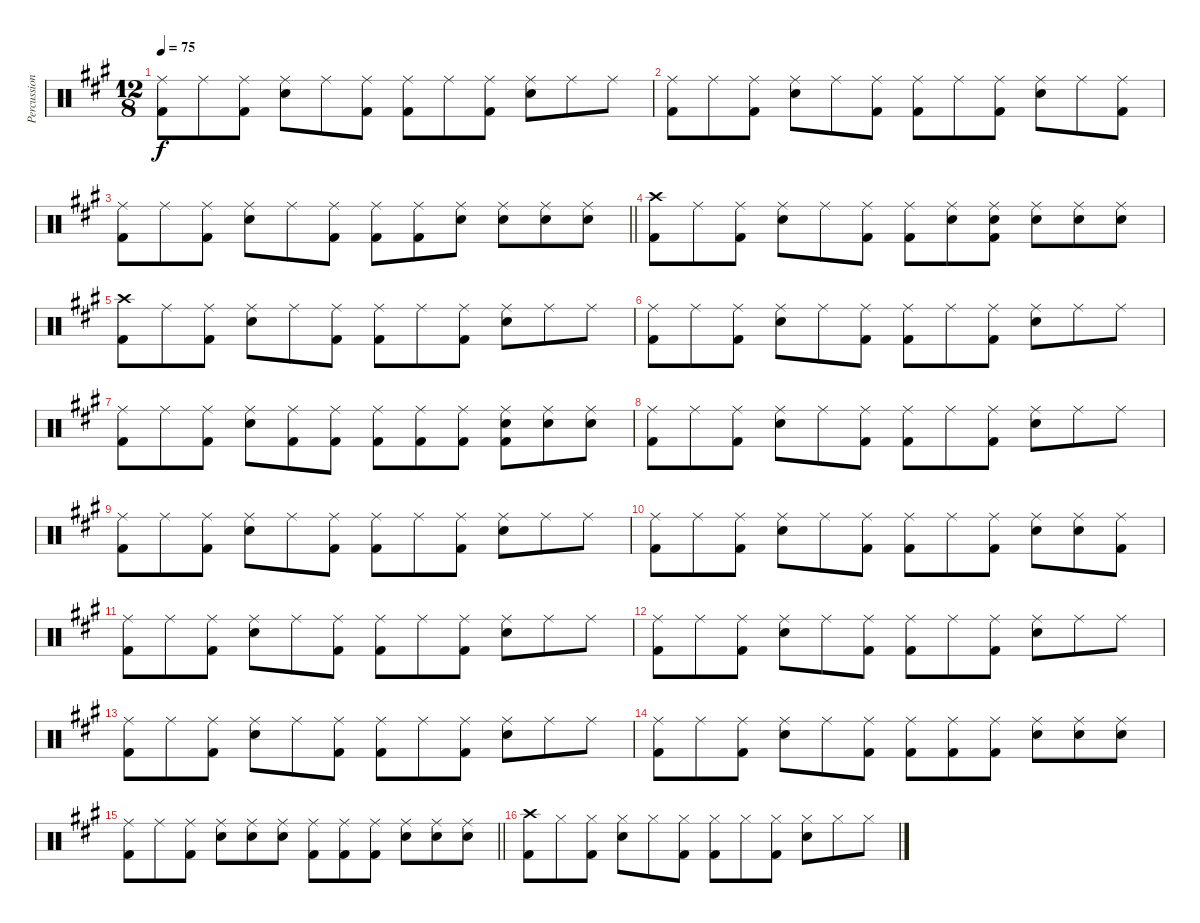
\track ("Percussion" "Percussion") {instrument percussion}
\staff {score}
\articulation defaults
\ts (12 8)
\tempo 75
\clef neutral
\ks a
("Ride (middle)" "Kick (hit) 2").8{dy f} "Ride (middle)".8 ("Ride (middle)" "Kick (hit) 2").8 ("Ride (middle)" "Snare (hit) 2").8 "Ride (middle)".8 ("Ride (middle)" "Kick (hit) 2").8 ("Ride (middle)" "Kick (hit) 2").8 "Ride (middle)".8 ("Ride (middle)" "Kick (hit) 2").8 ("Ride (middle)" "Snare (hit) 2").8 "Ride (middle)".8 "Ride (middle)".8 |
("Ride (middle)" "Kick (hit) 2").8 "Ride (middle)".8 ("Ride (middle)" "Kick (hit) 2").8 ("Ride (middle)" "Snare (hit) 2").8 "Ride (middle)".8 ("Ride (middle)" "Kick (hit) 2").8 ("Ride (middle)" "Kick (hit) 2").8 "Ride (middle)".8 ("Ride (middle)" "Kick (hit) 2").8 ("Ride (middle)" "Snare (hit) 2").8 "Ride (middle)".8 ("Ride (middle)" "Kick (hit) 2").8 |
\barLineRight lightlight
("Ride (middle)" "Kick (hit) 2").8 "Ride (middle)".8 ("Ride (middle)" "Kick (hit) 2").8 ("Ride (middle)" "Snare (hit) 2").8 "Ride (middle)".8 ("Ride (middle)" "Kick (hit) 2").8 ("Ride (middle)" "Kick (hit) 2").8 ("Ride (middle)" "Kick (hit) 2").8 ("Ride (middle)" "Snare (hit) 2").8 ("Ride (middle)" "Snare (hit) 2").8 ("Ride (middle)" "Snare (hit) 2").8 ("Ride (middle)" "Snare (hit) 2").8 |
("Crash high (hit)" "Kick (hit) 2").8 "Ride (middle)".8 ("Ride (middle)" "Kick (hit) 2").8 ("Ride (middle)" "Snare (hit) 2").8 "Ride (middle)".8 ("Ride (middle)" "Kick (hit) 2").8 ("Ride (middle)" "Kick (hit) 2").8 ("Ride (middle)" "Snare (hit) 2").8 ("Ride (middle)" "Snare (hit) 2" "Kick (hit) 2").8 ("Ride (middle)" "Snare (hit) 2").8 ("Ride (middle)" "Snare (hit) 2").8 ("Ride (middle)" "Snare (hit) 2").8 |
("Crash high (hit)" "Kick (hit) 2").8 "Ride (middle)".8 ("Ride (middle)" "Kick (hit) 2").8 ("Ride (middle)" "Snare (hit) 2").8 "Ride (middle)".8 ("Ride (middle)" "Kick (hit) 2").8 ("Ride (middle)" "Kick (hit) 2").8 "Ride (middle)".8 ("Ride (middle)" "Kick (hit) 2").8 ("Ride (middle)" "Snare (hit) 2").8 "Ride (middle)".8 "Ride (middle)".8 |
("Ride (middle)" "Kick (hit) 2").8 "Ride (middle)".8 ("Ride (middle)" "Kick (hit) 2").8 ("Ride (middle)" "Snare (hit) 2").8 "Ride (middle)".8 ("Ride (middle)" "Kick (hit) 2").8 ("Ride (middle)" "Kick (hit) 2").8 "Ride (middle)".8 ("Ride (middle)" "Kick (hit) 2").8 ("Ride (middle)" "Snare (hit) 2").8 "Ride (middle)".8 "Ride (middle)".8 |
("Ride (middle)" "Kick (hit) 2").8 "Ride (middle)".8 ("Ride (middle)" "Kick (hit) 2").8 ("Ride (middle)" "Snare (hit) 2").8 ("Ride (middle)" "Kick (hit) 2").8 ("Ride (middle)" "Kick (hit) 2").8 ("Ride (middle)" "Kick (hit) 2").8 ("Ride (middle)" "Kick (hit) 2").8 ("Ride (middle)" "Kick (hit) 2").8 ("Ride (middle)" "Snare (hit) 2" "Kick (hit) 2").8 ("Ride (middle)" "Snare (hit) 2").8 ("Ride (middle)" "Snare (hit) 2").8 |
("Ride (middle)" "Kick (hit) 2").8 "Ride (middle)".8 ("Ride (middle)" "Kick (hit) 2").8 ("Ride (middle)" "Snare (hit) 2").8 "Ride (middle)".8 ("Ride (middle)" "Kick (hit) 2").8 ("Ride (middle)" "Kick (hit) 2").8 "Ride (middle)".8 ("Ride (middle)" "Kick (hit) 2").8 ("Ride (middle)" "Snare (hit) 2").8 "Ride (middle)".8 "Ride (middle)".8 |
("Ride (middle)" "Kick (hit) 2").8 "Ride (middle)".8 ("Ride (middle)" "Kick (hit) 2").8 ("Ride (middle)" "Snare (hit) 2").8 "Ride (middle)".8 ("Ride (middle)" "Kick (hit) 2").8 ("Ride (middle)" "Kick (hit) 2").8 "Ride (middle)".8 ("Ride (middle)" "Kick (hit) 2").8 ("Ride (middle)" "Snare (hit) 2").8 "Ride (middle)".8 "Ride (middle)".8 |
("Ride (middle)" "Kick (hit) 2").8 "Ride (middle)".8 ("Ride (middle)" "Kick (hit) 2").8 ("Ride (middle)" "Snare (hit) 2").8 "Ride (middle)".8 ("Ride (middle)" "Kick (hit) 2").8 ("Ride (middle)" "Kick (hit) 2").8 "Ride (middle)".8 ("Ride (middle)" "Kick (hit) 2").8 ("Ride (middle)" "Snare (hit) 2").8 ("Ride (middle)" "Snare (hit) 2").8 ("Ride (middle)" "Kick (hit) 2").8 |
("Ride (middle)" "Kick (hit) 2").8 "Ride (middle)".8 ("Ride (middle)" "Kick (hit) 2").8 ("Ride (middle)" "Snare (hit) 2").8 "Ride (middle)".8 ("Ride (middle)" "Kick (hit) 2").8 ("Ride (middle)" "Kick (hit) 2").8 "Ride (middle)".8 ("Ride (middle)" "Kick (hit) 2").8 ("Ride (middle)" "Snare (hit) 2").8 "Ride (middle)".8 "Ride (middle)".8 |
("Ride (middle)" "Kick (hit) 2").8 "Ride (middle)".8 ("Ride (middle)" "Kick (hit) 2").8 ("Ride (middle)" "Snare (hit) 2").8 "Ride (middle)".8 ("Ride (middle)" "Kick (hit) 2").8 ("Ride (middle)" "Kick (hit) 2").8 "Ride (middle)".8 ("Ride (middle)" "Kick (hit) 2").8 ("Ride (middle)" "Snare (hit) 2").8 "Ride (middle)".8 "Ride (middle)".8 |
("Ride (middle)" "Kick (hit) 2").8 "Ride (middle)".8 ("Ride (middle)" "Kick (hit) 2").8 ("Ride (middle)" "Snare (hit) 2").8 "Ride (middle)".8 ("Ride (middle)" "Kick (hit) 2").8 ("Ride (middle)" "Kick (hit) 2").8 "Ride (middle)".8 ("Ride (middle)" "Kick (hit) 2").8 ("Ride (middle)" "Snare (hit) 2").8 "Ride (middle)".8 "Ride (middle)".8 |
("Ride (middle)" "Kick (hit) 2").8 "Ride (middle)".8 ("Ride (middle)" "Kick (hit) 2").8 ("Ride (middle)" "Snare (hit) 2").8 "Ride (middle)".8 ("Ride (middle)" "Kick (hit) 2").8 ("Ride (middle)" "Kick (hit) 2").8 ("Ride (middle)" "Kick (hit) 2").8 ("Ride (middle)" "Kick (hit) 2").8 ("Ride (middle)" "Snare (hit) 2").8 ("Ride (middle)" "Snare (hit) 2").8 ("Ride (middle)" "Snare (hit) 2").8 |
\barLineRight lightlight
("Ride (middle)" "Kick (hit) 2").8 "Ride (middle)".8 ("Ride (middle)" "Kick (hit) 2").8 ("Ride (middle)" "Snare (hit) 2").8 ("Ride (middle)" "Snare (hit) 2").8 ("Ride (middle)" "Snare (hit) 2").8 ("Ride (middle)" "Kick (hit) 2").8 ("Ride (middle)" "Kick (hit) 2").8 ("Ride (middle)" "Kick (hit) 2").8 ("Ride (middle)" "Snare (hit) 2").8 ("Ride (middle)" "Snare (hit) 2").8 ("Ride (middle)" "Snare (hit) 2").8 |
("Crash high (hit)" "Kick (hit) 2").8 "Hi-Hat (closed)".8 ("Hi-Hat (closed)" "Kick (hit) 2").8 ("Hi-Hat (closed)" "Snare (hit) 2").8 "Hi-Hat (closed)".8 ("Hi-Hat (closed)" "Kick (hit) 2").8 ("Hi-Hat (closed)" "Kick (hit) 2").8 "Hi-Hat (closed)".8 ("Hi-Hat (closed)" "Kick (hit) 2").8 ("Hi-Hat (closed)" "Snare (hit) 2").8 "Hi-Hat (closed)".8 "Hi-Hat (closed)".8
